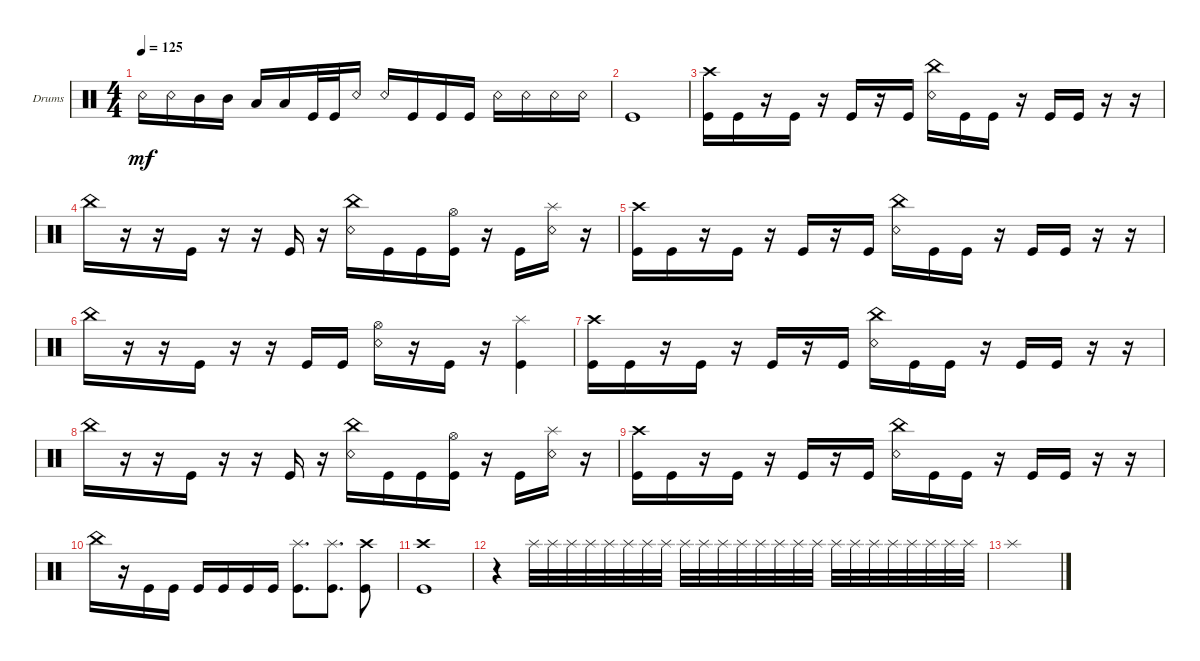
\defaultSystemsLayout 4
\bracketExtendMode groupsimilarinstruments
\firstSystemTrackNameOrientation horizontal
\otherSystemsTrackNameOrientation horizontal
\track ("Drumkit" "Drums") {instrument percussion}
\staff {score}
\articulation defaults
\ts (4 4)
\tempo 125
\clef neutral
\ks c "Snare (rim shot)".16{dy mf} "Snare (rim shot)".16 "Mid Tom (hit)".16 "Mid Tom (hit)".16 "Low Tom (hit)".16 "Low Tom (hit)".16 "Kick (hit)".32 "Kick (hit)".32 "Snare (rim shot)".16 "Snare (rim shot)".16 "Kick (hit)".16 "Kick (hit)".16 "Kick (hit)".16 "Snare (rim shot)".16 "Snare (rim shot)".16 "Snare (rim shot)".16 "Snare (rim shot)".16
|
"Kick (hit)".1 |
("Kick (hit)" "Crash high (hit)").16 "Kick (hit)".16 r.16 "Kick (hit)".16 r.16 "Kick (hit)".16 r.16 "Kick (hit)".16 ("Snare (rim shot)" "China (hit)").16 "Kick (hit)".16 "Kick (hit)".16 r.16 "Kick (hit)".16 "Kick (hit)".16 r.16 r.16 |
"China (hit)".16 r.16 r.16 "Kick (hit)".16 r.16 r.16 "Kick (hit)".16 r.16 ("China (hit)" "Snare (rim shot)").16 "Kick (hit)".16 "Kick (hit)".16 ("Hi-Hat (open)" "Kick (hit)").16 r.16 "Kick (hit)".16 ("Snare (rim shot)" "Splash (hit)").16 r.16 |
("Kick (hit)" "Crash high (hit)").16 "Kick (hit)".16 r.16 "Kick (hit)".16 r.16 "Kick (hit)".16 r.16 "Kick (hit)".16 ("Snare (rim shot)" "China (hit)").16 "Kick (hit)".16 "Kick (hit)".16 r.16 "Kick (hit)".16 "Kick (hit)".16 r.16 r.16 |
"China (hit)".16 r.16 r.16 "Kick (hit)".16 r.16 r.16 "Kick (hit)".16 "Kick (hit)".16 ("Snare (rim shot)" "Hi-Hat (open)").16 r.16 "Kick (hit)".16 r.16 ("Kick (hit)" "Splash (hit)").4 |
("Kick (hit)" "Crash high (hit)").16 "Kick (hit)".16 r.16 "Kick (hit)".16 r.16 "Kick (hit)".16 r.16 "Kick (hit)".16 ("Snare (rim shot)" "China (hit)").16 "Kick (hit)".16 "Kick (hit)".16 r.16 "Kick (hit)".16 "Kick (hit)".16 r.16 r.16 |
"China (hit)".16 r.16 r.16 "Kick (hit)".16 r.16 r.16 "Kick (hit)".16 r.16 ("China (hit)" "Snare (rim shot)").16 "Kick (hit)".16 "Kick (hit)".16 ("Hi-Hat (open)" "Kick (hit)").16 r.16 "Kick (hit)".16 ("Snare (rim shot)" "Splash (hit)").16 r.16 |
("Kick (hit)" "Crash high (hit)").16 "Kick (hit)".16 r.16 "Kick (hit)".16 r.16 "Kick (hit)".16 r.16 "Kick (hit)".16 ("Snare (rim shot)" "China (hit)").16 "Kick (hit)".16 "Kick (hit)".16 r.16 "Kick (hit)".16 "Kick (hit)".16 r.16 r.16 |
"China (hit)".16 r.16 "Kick (hit)".16 "Kick (hit)".16 "Kick (hit)".16 "Kick (hit)".16 "Kick (hit)".16 "Kick (hit)".16 ("Kick (hit)" "Splash (hit)").8{d} ("Kick (hit)" "Splash (hit)").8{d} ("Kick (hit)" "Crash high (hit)").8 |
("Kick (hit)" "Crash high (hit)").1 |
r.4 "Splash (hit)".32 "Splash (hit)".32 "Splash (hit)".32 "Splash (hit)".32 "Splash (hit)".32 "Splash (hit)".32 "Splash (hit)".32 "Splash (hit)".32 "Splash (hit)".32 "Splash (hit)".32 "Splash (hit)".32 "Splash (hit)".32 "Splash (hit)".32 "Splash (hit)".32 "Splash (hit)".32 "Splash (hit)".32 "Splash (hit)".32 "Splash (hit)".32 "Splash (hit)".32 "Splash (hit)".32 "Splash (hit)".32 "Splash (hit)".32 "Splash (hit)".32 "Splash (hit)".32 |
"Splash (hit)".1
